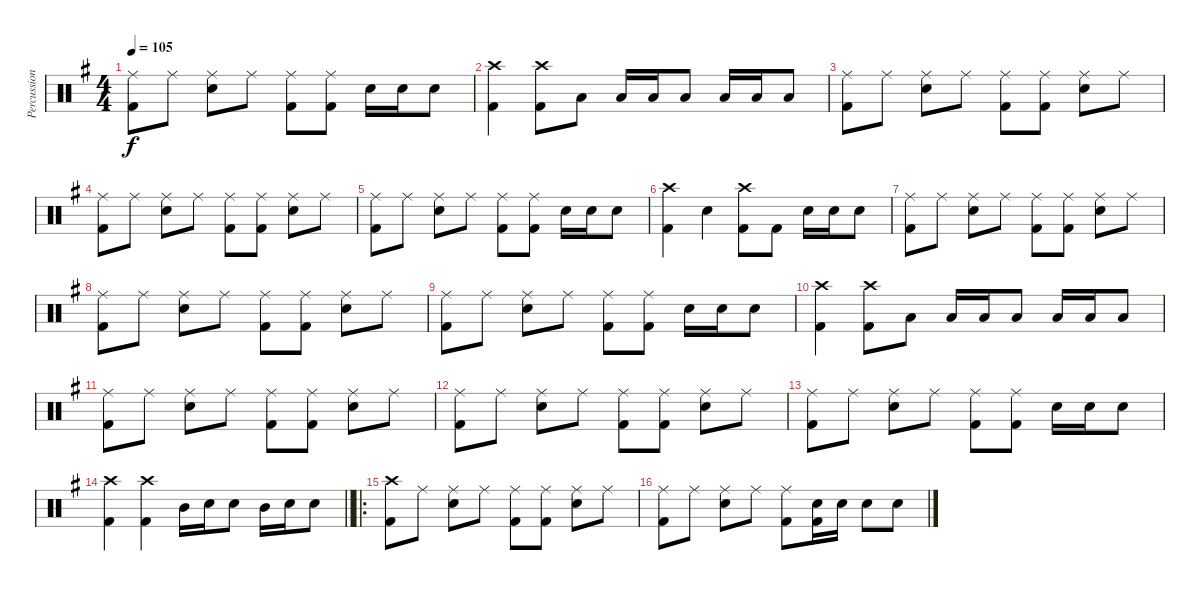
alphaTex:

\track ("Percussion" "Percussion") {instrument percussion}
\staff {score}
\articulation defaults
\ts (4 4)
\tempo 105
\clef neutral
\ks g
("Ride (middle)" "Kick (hit) 2").8{dy f} "Ride (middle)".8 ("Ride (middle)" "Snare (hit) 2").8 "Ride (middle)".8 ("Ride (middle)" "Kick (hit) 2").8 ("Ride (middle)" "Kick (hit) 2").8 "Snare (hit) 2".16 "Snare (hit) 2".16 "Snare (hit) 2".8 |
("Crash high (hit)" "Kick (hit) 2").4 ("Crash high (hit)" "Kick (hit) 2").8 "Low Floor Tom (hit)".8 "Low Floor Tom (hit)".16 "Low Floor Tom (hit)".16 "Low Floor Tom (hit)".8 "Low Floor Tom (hit)".16 "Low Floor Tom (hit)".16 "Low Floor Tom (hit)".8 |
("Ride (middle)" "Kick (hit) 2").8 "Ride (middle)".8 ("Ride (middle)" "Snare (hit) 2").8 "Ride (middle)".8 ("Ride (middle)" "Kick (hit) 2").8 ("Ride (middle)" "Kick (hit) 2").8 ("Ride (middle)" "Snare (hit) 2").8 "Ride (middle)".8 |
("Ride (middle)" "Kick (hit) 2").8 "Ride (middle)".8 ("Ride (middle)" "Snare (hit) 2").8 "Ride (middle)".8 ("Ride (middle)" "Kick (hit) 2").8 ("Ride (middle)" "Kick (hit) 2").8 ("Ride (middle)" "Snare (hit) 2").8 "Ride (middle)".8 |
("Ride (middle)" "Kick (hit) 2").8 "Ride (middle)".8 ("Ride (middle)" "Snare (hit) 2").8 "Ride (middle)".8 ("Ride (middle)" "Kick (hit) 2").8 ("Ride (middle)" "Kick (hit) 2").8 "Snare (hit) 2".16 "Snare (hit) 2".16 "Snare (hit) 2".8 |
("Crash high (hit)" "Kick (hit) 2").4 "Snare (hit) 2".4 ("Crash high (hit)" "Kick (hit) 2").8 "Kick (hit) 2".8 "Snare (hit) 2".16 "Snare (hit) 2".16 "Snare (hit) 2".8 |
("Ride (middle)" "Kick (hit) 2").8 "Ride (middle)".8 ("Ride (middle)" "Snare (hit) 2").8 "Ride (middle)".8 ("Ride (middle)" "Kick (hit) 2").8 ("Ride (middle)" "Kick (hit) 2").8 ("Ride (middle)" "Snare (hit) 2").8 "Ride (middle)".8 |
("Ride (middle)" "Kick (hit) 2").8 "Ride (middle)".8 ("Ride (middle)" "Snare (hit) 2").8 "Ride (middle)".8 ("Ride (middle)" "Kick (hit) 2").8 ("Ride (middle)" "Kick (hit) 2").8 ("Ride (middle)" "Snare (hit) 2").8 "Ride (middle)".8 |
("Ride (middle)" "Kick (hit) 2").8 "Ride (middle)".8 ("Ride (middle)" "Snare (hit) 2").8 "Ride (middle)".8 ("Ride (middle)" "Kick (hit) 2").8 ("Ride (middle)" "Kick (hit) 2").8 "Snare (hit) 2".16 "Snare (hit) 2".16 "Snare (hit) 2".8 |
("Crash high (hit)" "Kick (hit) 2").4 ("Crash high (hit)" "Kick (hit) 2").8 "Low Floor Tom (hit)".8 "Low Floor Tom (hit)".16 "Low Floor Tom (hit)".16 "Low Floor Tom (hit)".8 "Low Floor Tom (hit)".16 "Low Floor Tom (hit)".16 "Low Floor Tom (hit)".8 |
("Ride (middle)" "Kick (hit) 2").8 "Ride (middle)".8 ("Ride (middle)" "Snare (hit) 2").8 "Ride (middle)".8 ("Ride (middle)" "Kick (hit) 2").8 ("Ride (middle)" "Kick (hit) 2").8 ("Ride (middle)" "Snare (hit) 2").8 "Ride (middle)".8 |
("Ride (middle)" "Kick (hit) 2").8 "Ride (middle)".8 ("Ride (middle)" "Snare (hit) 2").8 "Ride (middle)".8 ("Ride (middle)" "Kick (hit) 2").8 ("Ride (middle)" "Kick (hit) 2").8 ("Ride (middle)" "Snare (hit) 2").8 "Ride (middle)".8 |
("Ride (middle)" "Kick (hit) 2").8 "Ride (middle)".8 ("Ride (middle)" "Snare (hit) 2").8 "Ride (middle)".8 ("Ride (middle)" "Kick (hit) 2").8 ("Ride (middle)" "Kick (hit) 2").8 "Snare (hit) 2".16 "Snare (hit) 2".16 "Snare (hit) 2".8 |
\barLineRight lightlight
("Crash high (hit)" "Kick (hit) 2").4 ("Crash high (hit)" "Kick (hit) 2").4 "Mid Tom (hit)".16 "Snare (hit) 2".16 "Snare (hit) 2".8 "Mid Tom (hit)".16 "Snare (hit) 2".16 "Snare (hit) 2".8 |
\ro
("Crash high (hit)" "Kick (hit) 2").8 "Ride (middle)".8 ("Ride (middle)" "Snare (hit) 2").8 "Ride (middle)".8 ("Ride (middle)" "Kick (hit) 2").8 ("Ride (middle)" "Kick (hit) 2").8 ("Ride (middle)" "Snare (hit) 2").8 "Ride (middle)".8 |
("Ride (middle)" "Kick (hit) 2").8 "Ride (middle)".8 ("Ride (middle)" "Snare (hit) 2").8 "Ride (middle)".8 ("Ride (middle)" "Kick (hit) 2").8 ("Snare (hit) 2" "Kick (hit) 2").16 "Snare (hit) 2".16 "Snare (hit) 2".8 "Snare (hit) 2".8
